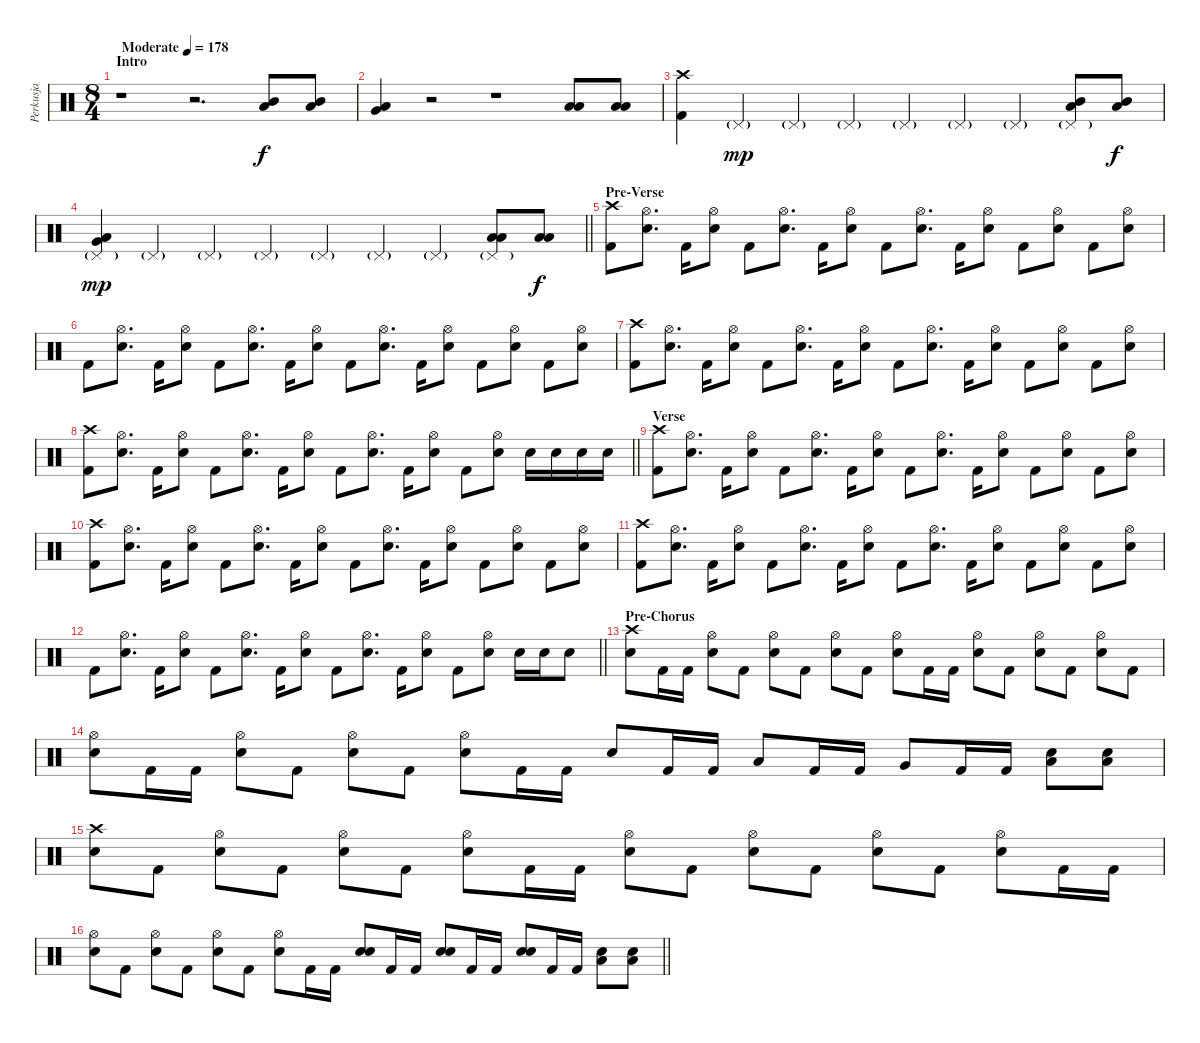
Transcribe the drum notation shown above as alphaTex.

\track ("Perkusja" "Perkusja") {instrument percussion}
\staff {score}
\articulation defaults
\ts (8 4)
\section ("" "Intro")
\tempo (178 "Moderate")
\clef neutral
\ks c
r.1{dy f} r.2{d} ("Mid Tom (hit)" "Low Floor Tom (hit)").8 ("Mid Tom (hit)" "Low Floor Tom (hit)").8 |
("Very Low Tom (hit)" "Low Floor Tom (hit)").4 r.2 r.1 ("Low Floor Tom (hit)" "Low Floor Tom (hit)").8 ("Low Floor Tom (hit)" "Low Floor Tom (hit)").8 |
("Crash high (hit)" "Kick (hit) 2").4 "Pedal Hi-Hat (hit)"{g}.4{dy mp} "Pedal Hi-Hat (hit)"{g}.4 "Pedal Hi-Hat (hit)"{g}.4 "Pedal Hi-Hat (hit)"{g}.4 "Pedal Hi-Hat (hit)"{g}.4 "Pedal Hi-Hat (hit)"{g}.4 ("Pedal Hi-Hat (hit)"{g} "Mid Tom (hit)" "Low Floor Tom (hit)").8 ("Mid Tom (hit)" "Low Floor Tom (hit)").8{dy f} |
\barLineRight lightlight
("Pedal Hi-Hat (hit)"{g} "Very Low Tom (hit)" "Low Floor Tom (hit)").4{dy mp} "Pedal Hi-Hat (hit)"{g}.4 "Pedal Hi-Hat (hit)"{g}.4 "Pedal Hi-Hat (hit)"{g}.4 "Pedal Hi-Hat (hit)"{g}.4 "Pedal Hi-Hat (hit)"{g}.4 "Pedal Hi-Hat (hit)"{g}.4 ("Pedal Hi-Hat (hit)"{g} "Low Floor Tom (hit)" "Low Floor Tom (hit)").8 ("Low Floor Tom (hit)" "Low Floor Tom (hit)").8{dy f} |
\section ("" "Pre-Verse")
("Crash high (hit)" "Kick (hit) 2").8 ("Hi-Hat (open)" "Snare (hit) 2").8{d} "Kick (hit) 2".16 ("Hi-Hat (open)" "Snare (hit) 2").8 "Kick (hit) 2".8 ("Hi-Hat (open)" "Snare (hit) 2").8{d} "Kick (hit) 2".16 ("Hi-Hat (open)" "Snare (hit) 2").8 "Kick (hit) 2".8 ("Hi-Hat (open)" "Snare (hit) 2").8{d} "Kick (hit) 2".16 ("Hi-Hat (open)" "Snare (hit) 2").8 "Kick (hit) 2".8 ("Hi-Hat (open)" "Snare (hit) 2").8 "Kick (hit) 2".8 ("Hi-Hat (open)" "Snare (hit) 2").8 |
"Kick (hit) 2".8 ("Hi-Hat (open)" "Snare (hit) 2").8{d} "Kick (hit) 2".16 ("Hi-Hat (open)" "Snare (hit) 2").8 "Kick (hit) 2".8 ("Hi-Hat (open)" "Snare (hit) 2").8{d} "Kick (hit) 2".16 ("Hi-Hat (open)" "Snare (hit) 2").8 "Kick (hit) 2".8 ("Hi-Hat (open)" "Snare (hit) 2").8{d} "Kick (hit) 2".16 ("Hi-Hat (open)" "Snare (hit) 2").8 "Kick (hit) 2".8 ("Hi-Hat (open)" "Snare (hit) 2").8 "Kick (hit) 2".8 ("Hi-Hat (open)" "Snare (hit) 2").8 |
("Crash high (hit)" "Kick (hit) 2").8 ("Hi-Hat (open)" "Snare (hit) 2").8{d} "Kick (hit) 2".16 ("Hi-Hat (open)" "Snare (hit) 2").8 "Kick (hit) 2".8 ("Hi-Hat (open)" "Snare (hit) 2").8{d} "Kick (hit) 2".16 ("Hi-Hat (open)" "Snare (hit) 2").8 "Kick (hit) 2".8 ("Hi-Hat (open)" "Snare (hit) 2").8{d} "Kick (hit) 2".16 ("Hi-Hat (open)" "Snare (hit) 2").8 "Kick (hit) 2".8 ("Hi-Hat (open)" "Snare (hit) 2").8 "Kick (hit) 2".8 ("Hi-Hat (open)" "Snare (hit) 2").8 |
\barLineRight lightlight
("Crash high (hit)" "Kick (hit) 2").8 ("Hi-Hat (open)" "Snare (hit) 2").8{d} "Kick (hit) 2".16 ("Hi-Hat (open)" "Snare (hit) 2").8 "Kick (hit) 2".8 ("Hi-Hat (open)" "Snare (hit) 2").8{d} "Kick (hit) 2".16 ("Hi-Hat (open)" "Snare (hit) 2").8 "Kick (hit) 2".8 ("Hi-Hat (open)" "Snare (hit) 2").8{d} "Kick (hit) 2".16 ("Hi-Hat (open)" "Snare (hit) 2").8 "Kick (hit) 2".8 ("Hi-Hat (open)" "Snare (hit) 2").8 "Snare (hit) 2".16 "Snare (hit) 2".16 "Snare (hit) 2".16 "Snare (hit) 2".16 |
\section ("" "Verse")
("Crash high (hit)" "Kick (hit) 2").8 ("Hi-Hat (open)" "Snare (hit) 2").8{d} "Kick (hit) 2".16 ("Hi-Hat (open)" "Snare (hit) 2").8 "Kick (hit) 2".8 ("Hi-Hat (open)" "Snare (hit) 2").8{d} "Kick (hit) 2".16 ("Hi-Hat (open)" "Snare (hit) 2").8 "Kick (hit) 2".8 ("Hi-Hat (open)" "Snare (hit) 2").8{d} "Kick (hit) 2".16 ("Hi-Hat (open)" "Snare (hit) 2").8 "Kick (hit) 2".8 ("Hi-Hat (open)" "Snare (hit) 2").8 "Kick (hit) 2".8 ("Hi-Hat (open)" "Snare (hit) 2").8 |
("Crash high (hit)" "Kick (hit) 2").8 ("Hi-Hat (open)" "Snare (hit) 2").8{d} "Kick (hit) 2".16 ("Hi-Hat (open)" "Snare (hit) 2").8 "Kick (hit) 2".8 ("Hi-Hat (open)" "Snare (hit) 2").8{d} "Kick (hit) 2".16 ("Hi-Hat (open)" "Snare (hit) 2").8 "Kick (hit) 2".8 ("Hi-Hat (open)" "Snare (hit) 2").8{d} "Kick (hit) 2".16 ("Hi-Hat (open)" "Snare (hit) 2").8 "Kick (hit) 2".8 ("Hi-Hat (open)" "Snare (hit) 2").8 "Kick (hit) 2".8 ("Hi-Hat (open)" "Snare (hit) 2").8 |
("Crash high (hit)" "Kick (hit) 2").8 ("Hi-Hat (open)" "Snare (hit) 2").8{d} "Kick (hit) 2".16 ("Hi-Hat (open)" "Snare (hit) 2").8 "Kick (hit) 2".8 ("Hi-Hat (open)" "Snare (hit) 2").8{d} "Kick (hit) 2".16 ("Hi-Hat (open)" "Snare (hit) 2").8 "Kick (hit) 2".8 ("Hi-Hat (open)" "Snare (hit) 2").8{d} "Kick (hit) 2".16 ("Hi-Hat (open)" "Snare (hit) 2").8 "Kick (hit) 2".8 ("Hi-Hat (open)" "Snare (hit) 2").8 "Kick (hit) 2".8 ("Hi-Hat (open)" "Snare (hit) 2").8 |
\barLineRight lightlight "Kick (hit) 2".8
("Hi-Hat (open)" "Snare (hit) 2").8{d} "Kick (hit) 2".16 ("Hi-Hat (open)" "Snare (hit) 2").8 "Kick (hit) 2".8 ("Hi-Hat (open)" "Snare (hit) 2").8{d} "Kick (hit) 2".16 ("Hi-Hat (open)" "Snare (hit) 2").8 "Kick (hit) 2".8 ("Hi-Hat (open)" "Snare (hit) 2").8{d} "Kick (hit) 2".16 ("Hi-Hat (open)" "Snare (hit) 2").8 "Kick (hit) 2".8 ("Hi-Hat (open)" "Snare (hit) 2").8 "Snare (hit) 2".16 "Snare (hit) 2".16 "Snare (hit) 2".8 |
\section ("" "Pre-Chorus")
("Crash high (hit)" "Snare (hit) 2").8 "Kick (hit) 2".16 "Kick (hit) 2".16 ("Hi-Hat (open)" "Snare (hit) 2").8 "Kick (hit) 2".8 ("Hi-Hat (open)" "Snare (hit) 2").8 "Kick (hit) 2".8 ("Hi-Hat (open)" "Snare (hit) 2").8 "Kick (hit) 2".8 ("Hi-Hat (open)" "Snare (hit) 2").8 "Kick (hit) 2".16 "Kick (hit) 2".16 ("Hi-Hat (open)" "Snare (hit) 2").8 "Kick (hit) 2".8 ("Hi-Hat (open)" "Snare (hit) 2").8 "Kick (hit) 2".8 ("Hi-Hat (open)" "Snare (hit) 2").8 "Kick (hit) 2".8 |
("Hi-Hat (open)" "Snare (hit) 2").8 "Kick (hit) 2".16 "Kick (hit) 2".16 ("Hi-Hat (open)" "Snare (hit) 2").8 "Kick (hit) 2".8 ("Hi-Hat (open)" "Snare (hit) 2").8 "Kick (hit) 2".8 ("Hi-Hat (open)" "Snare (hit) 2").8 "Kick (hit) 2".16 "Kick (hit) 2".16 "Snare (hit) 2".8 "Kick (hit) 2".16 "Kick (hit) 2".16 "Low Tom (hit)".8 "Kick (hit) 2".16 "Kick (hit) 2".16 "Very Low Tom (hit)".8 "Kick (hit) 2".16 "Kick (hit) 2".16 ("Low Floor Tom (hit)" "Snare (hit) 2").8 ("Low Floor Tom (hit)" "Snare (hit) 2").8 |
("Crash high (hit)" "Snare (hit) 2").8 "Kick (hit) 2".8 ("Hi-Hat (open)" "Snare (hit) 2").8 "Kick (hit) 2".8 ("Hi-Hat (open)" "Snare (hit) 2").8 "Kick (hit) 2".8 ("Hi-Hat (open)" "Snare (hit) 2").8 "Kick (hit) 2".16 "Kick (hit) 2".16 ("Hi-Hat (open)" "Snare (hit) 2").8 "Kick (hit) 2".8 ("Hi-Hat (open)" "Snare (hit) 2").8 "Kick (hit) 2".8 ("Hi-Hat (open)" "Snare (hit) 2").8 "Kick (hit) 2".8 ("Hi-Hat (open)" "Snare (hit) 2").8 "Kick (hit) 2".16 "Kick (hit) 2".16 |
\barLineRight lightlight
("Hi-Hat (open)" "Snare (hit) 2").8 "Kick (hit) 2".8 ("Hi-Hat (open)" "Snare (hit) 2").8 "Kick (hit) 2".8 ("Hi-Hat (open)" "Snare (hit) 2").8 "Kick (hit) 2".8 ("Hi-Hat (open)" "Snare (hit) 2").8 "Kick (hit) 2".16 "Kick (hit) 2".16 ("Snare (hit) 2" "Snare (hit) 2").8 "Kick (hit) 2".16 "Kick (hit) 2".16 ("Snare (hit) 2" "Snare (hit) 2").8 "Kick (hit) 2".16 "Kick (hit) 2".16 ("Snare (hit) 2" "Snare (hit) 2").8 "Kick (hit) 2".16 "Kick (hit) 2".16 ("Low Tom (hit)" "Snare (hit) 2").8 ("Low Tom (hit)" "Snare (hit) 2").8
